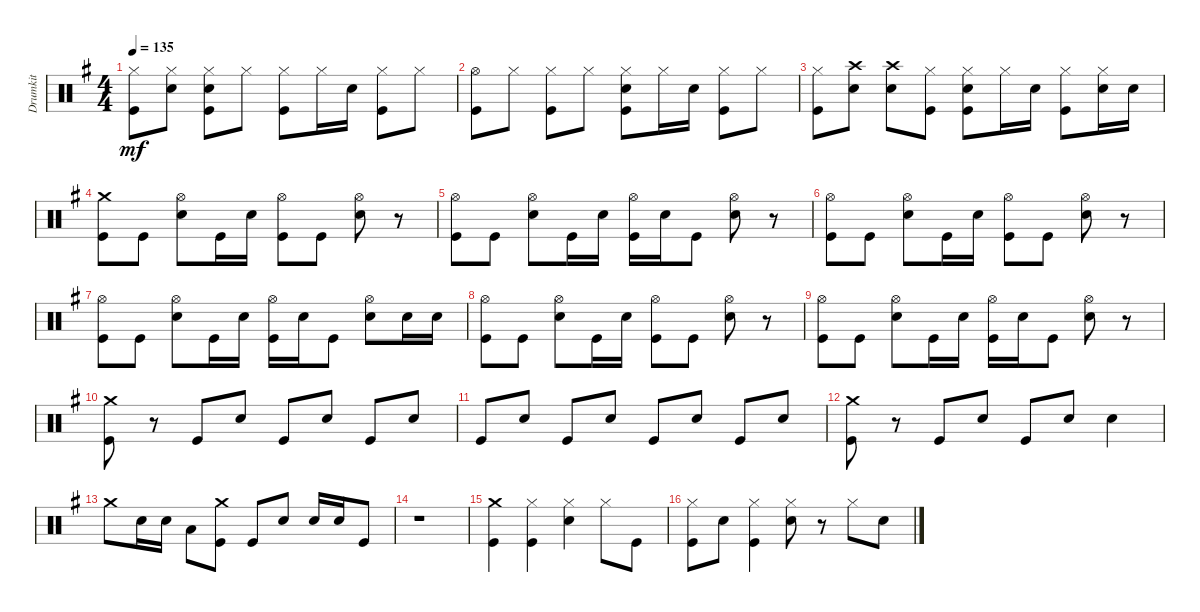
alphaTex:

\track ("Drumkit" "Drumkit") {instrument percussion}
\staff {score}
\articulation defaults
\ts (4 4)
\tempo 135
\clef neutral
\ks g
("Hi-Hat (closed)" "Kick (hit)").8{dy mf} ("Hi-Hat (closed)" "Snare (hit) 2").8 ("Hi-Hat (closed)" "Kick (hit)" "Snare (hit) 2").8 "Hi-Hat (closed)".8 ("Hi-Hat (closed)" "Kick (hit)").8 "Hi-Hat (closed)".16 "Snare (hit) 2".16 ("Hi-Hat (closed)" "Kick (hit)").8 "Hi-Hat (closed)".8 |
("Kick (hit)" "Hi-Hat (open)").8 "Hi-Hat (closed)".8 ("Hi-Hat (closed)" "Kick (hit)").8 "Hi-Hat (closed)".8 ("Hi-Hat (closed)" "Kick (hit)" "Snare (hit) 2").8 "Hi-Hat (closed)".16 "Snare (hit) 2".16 ("Hi-Hat (closed)" "Kick (hit)").8 "Hi-Hat (closed)".8 |
("Hi-Hat (closed)" "Kick (hit)").8 ("Snare (hit) 2" "Crash high (hit)").8 ("Snare (hit) 2" "Crash high (hit)").8 ("Hi-Hat (closed)" "Kick (hit)").8 ("Hi-Hat (closed)" "Kick (hit)" "Snare (hit) 2").8 "Hi-Hat (closed)".16 "Snare (hit) 2".16 ("Hi-Hat (closed)" "Kick (hit)").8 ("Hi-Hat (closed)" "Snare (hit) 2").16 "Snare (hit) 2".16 |
("Crash medium (hit)" "Kick (hit)").8 "Kick (hit)".8 ("Hi-Hat (open)" "Snare (hit) 2").8 "Kick (hit)".16 "Snare (hit) 2".16 ("Hi-Hat (open)" "Kick (hit)").8 "Kick (hit)".8 ("Hi-Hat (open)" "Snare (hit) 2").8 r.8 |
("Hi-Hat (open)" "Kick (hit)").8 "Kick (hit)".8 ("Hi-Hat (open)" "Snare (hit) 2").8 "Kick (hit)".16 "Snare (hit) 2".16 ("Hi-Hat (open)" "Kick (hit)").16 "Snare (hit) 2".16 "Kick (hit)".8 ("Hi-Hat (open)" "Snare (hit) 2").8 r.8 |
("Kick (hit)" "Hi-Hat (open)").8 "Kick (hit)".8 ("Hi-Hat (open)" "Snare (hit) 2").8 "Kick (hit)".16 "Snare (hit) 2".16 ("Hi-Hat (open)" "Kick (hit)").8 "Kick (hit)".8 ("Hi-Hat (open)" "Snare (hit) 2").8 r.8 |
("Hi-Hat (open)" "Kick (hit)").8 "Kick (hit)".8 ("Hi-Hat (open)" "Snare (hit) 2").8 "Kick (hit)".16 "Snare (hit) 2".16 ("Hi-Hat (open)" "Kick (hit)").16 "Snare (hit) 2".16 "Kick (hit)".8 ("Hi-Hat (open)" "Snare (hit) 2").8 "Snare (hit) 2".16 "Snare (hit) 2".16 |
("Kick (hit)" "Hi-Hat (open)").8 "Kick (hit)".8 ("Hi-Hat (open)" "Snare (hit) 2").8 "Kick (hit)".16 "Snare (hit) 2".16 ("Hi-Hat (open)" "Kick (hit)").8 "Kick (hit)".8 ("Hi-Hat (open)" "Snare (hit) 2").8 r.8 |
("Hi-Hat (open)" "Kick (hit)").8 "Kick (hit)".8 ("Hi-Hat (open)" "Snare (hit) 2").8 "Kick (hit)".16 "Snare (hit) 2".16 ("Hi-Hat (open)" "Kick (hit)").16 "Snare (hit) 2".16 "Kick (hit)".8 ("Hi-Hat (open)" "Snare (hit) 2").8 r.8 |
("Crash medium (hit)" "Kick (hit)").8 r.8 "Kick (hit)".8 "Snare (hit) 2".8 "Kick (hit)".8 "Snare (hit) 2".8 "Kick (hit)".8 "Snare (hit) 2".8 |
"Kick (hit)".8 "Snare (hit) 2".8 "Kick (hit)".8 "Snare (hit) 2".8 "Kick (hit)".8 "Snare (hit) 2".8 "Kick (hit)".8 "Snare (hit) 2".8 |
("Crash medium (hit)" "Kick (hit)").8 r.8 "Kick (hit)".8 "Snare (hit) 2".8 "Kick (hit)".8 "Snare (hit) 2".8 "Snare (hit) 2".4 |
"Crash medium (hit)".8 "Snare (hit) 2".16 "Snare (hit) 2".16 "Low Tom (hit)".8 ("Kick (hit)" "Crash medium (hit)").8 "Kick (hit)".8 "Snare (hit) 2".8 "Snare (hit) 2".16 "Snare (hit) 2".16 "Kick (hit)".8 |
r.1 |
("Kick (hit)" "Crash medium (hit)").4 ("Kick (hit)" "Hi-Hat (closed)").4 ("Snare (hit) 2" "Hi-Hat (closed)").4 "Hi-Hat (closed)".8 "Kick (hit)".8 |
("Kick (hit)" "Hi-Hat (closed)").8 "Snare (hit) 2".8 ("Kick (hit)" "Hi-Hat (closed)").4 ("Snare (hit) 2" "Hi-Hat (closed)").8 r.8 "Hi-Hat (closed)".8 "Snare (hit) 2".8
